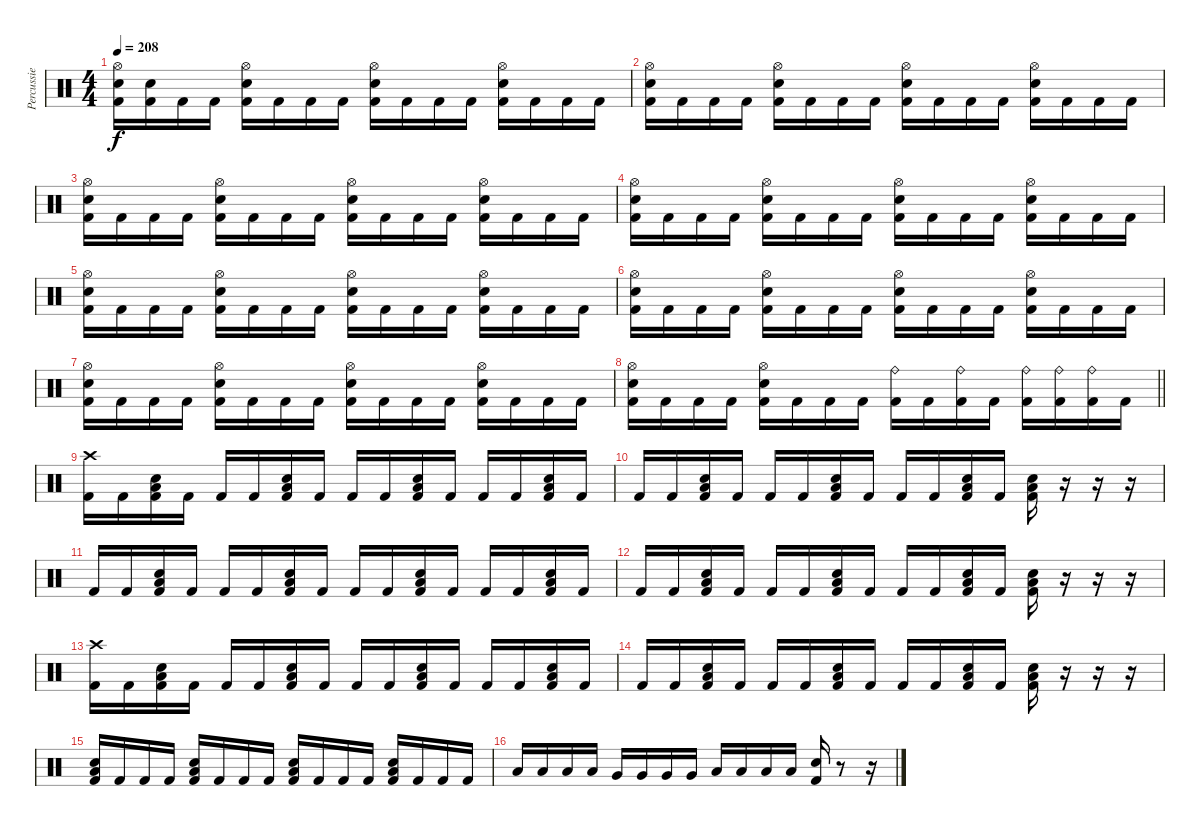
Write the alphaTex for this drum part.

\track ("Percussie" "Percussie") {instrument percussion}
\staff {score}
\articulation defaults
\ts (4 4)
\tempo 208
\clef neutral
\ks c
("Hi-Hat (open)" "Electric Snare (hit)" "Kick (hit) 2").16{dy f} ("Electric Snare (hit)" "Kick (hit) 2").16 "Kick (hit) 2".16 "Kick (hit) 2".16 ("Hi-Hat (open)" "Electric Snare (hit)" "Kick (hit) 2").16 "Kick (hit) 2".16 "Kick (hit) 2".16 "Kick (hit) 2".16 ("Hi-Hat (open)" "Electric Snare (hit)" "Kick (hit) 2").16 "Kick (hit) 2".16 "Kick (hit) 2".16 "Kick (hit) 2".16 ("Hi-Hat (open)" "Electric Snare (hit)" "Kick (hit) 2").16 "Kick (hit) 2".16 "Kick (hit) 2".16 "Kick (hit) 2".16 |
("Hi-Hat (open)" "Electric Snare (hit)" "Kick (hit) 2").16 "Kick (hit) 2".16 "Kick (hit) 2".16 "Kick (hit) 2".16 ("Hi-Hat (open)" "Electric Snare (hit)" "Kick (hit) 2").16 "Kick (hit) 2".16 "Kick (hit) 2".16 "Kick (hit) 2".16 ("Hi-Hat (open)" "Electric Snare (hit)" "Kick (hit) 2").16 "Kick (hit) 2".16 "Kick (hit) 2".16 "Kick (hit) 2".16 ("Hi-Hat (open)" "Electric Snare (hit)" "Kick (hit) 2").16 "Kick (hit) 2".16 "Kick (hit) 2".16 "Kick (hit) 2".16 |
("Hi-Hat (open)" "Electric Snare (hit)" "Kick (hit) 2").16 "Kick (hit) 2".16 "Kick (hit) 2".16 "Kick (hit) 2".16 ("Hi-Hat (open)" "Electric Snare (hit)" "Kick (hit) 2").16 "Kick (hit) 2".16 "Kick (hit) 2".16 "Kick (hit) 2".16 ("Hi-Hat (open)" "Electric Snare (hit)" "Kick (hit) 2").16 "Kick (hit) 2".16 "Kick (hit) 2".16 "Kick (hit) 2".16 ("Hi-Hat (open)" "Electric Snare (hit)" "Kick (hit) 2").16 "Kick (hit) 2".16 "Kick (hit) 2".16 "Kick (hit) 2".16 |
("Hi-Hat (open)" "Electric Snare (hit)" "Kick (hit) 2").16 "Kick (hit) 2".16 "Kick (hit) 2".16 "Kick (hit) 2".16 ("Hi-Hat (open)" "Electric Snare (hit)" "Kick (hit) 2").16 "Kick (hit) 2".16 "Kick (hit) 2".16 "Kick (hit) 2".16 ("Hi-Hat (open)" "Electric Snare (hit)" "Kick (hit) 2").16 "Kick (hit) 2".16 "Kick (hit) 2".16 "Kick (hit) 2".16 ("Hi-Hat (open)" "Electric Snare (hit)" "Kick (hit) 2").16 "Kick (hit) 2".16 "Kick (hit) 2".16 "Kick (hit) 2".16 |
("Hi-Hat (open)" "Electric Snare (hit)" "Kick (hit) 2").16 "Kick (hit) 2".16 "Kick (hit) 2".16 "Kick (hit) 2".16 ("Hi-Hat (open)" "Electric Snare (hit)" "Kick (hit) 2").16 "Kick (hit) 2".16 "Kick (hit) 2".16 "Kick (hit) 2".16 ("Hi-Hat (open)" "Electric Snare (hit)" "Kick (hit) 2").16 "Kick (hit) 2".16 "Kick (hit) 2".16 "Kick (hit) 2".16 ("Hi-Hat (open)" "Electric Snare (hit)" "Kick (hit) 2").16 "Kick (hit) 2".16 "Kick (hit) 2".16 "Kick (hit) 2".16 |
("Hi-Hat (open)" "Electric Snare (hit)" "Kick (hit) 2").16 "Kick (hit) 2".16 "Kick (hit) 2".16 "Kick (hit) 2".16 ("Hi-Hat (open)" "Electric Snare (hit)" "Kick (hit) 2").16 "Kick (hit) 2".16 "Kick (hit) 2".16 "Kick (hit) 2".16 ("Hi-Hat (open)" "Electric Snare (hit)" "Kick (hit) 2").16 "Kick (hit) 2".16 "Kick (hit) 2".16 "Kick (hit) 2".16 ("Hi-Hat (open)" "Electric Snare (hit)" "Kick (hit) 2").16 "Kick (hit) 2".16 "Kick (hit) 2".16 "Kick (hit) 2".16 |
("Hi-Hat (open)" "Electric Snare (hit)" "Kick (hit) 2").16 "Kick (hit) 2".16 "Kick (hit) 2".16 "Kick (hit) 2".16 ("Hi-Hat (open)" "Electric Snare (hit)" "Kick (hit) 2").16 "Kick (hit) 2".16 "Kick (hit) 2".16 "Kick (hit) 2".16 ("Hi-Hat (open)" "Electric Snare (hit)" "Kick (hit) 2").16 "Kick (hit) 2".16 "Kick (hit) 2".16 "Kick (hit) 2".16 ("Hi-Hat (open)" "Electric Snare (hit)" "Kick (hit) 2").16 "Kick (hit) 2".16 "Kick (hit) 2".16 "Kick (hit) 2".16 |
\barLineRight lightlight
("Hi-Hat (open)" "Electric Snare (hit)" "Kick (hit) 2").16 "Kick (hit) 2".16 "Kick (hit) 2".16 "Kick (hit) 2".16 ("Hi-Hat (open)" "Electric Snare (hit)" "Kick (hit) 2").16 "Kick (hit) 2".16 "Kick (hit) 2".16 "Kick (hit) 2".16 ("Ride (bell)" "Kick (hit) 2").16 "Kick (hit) 2".16 ("Ride (bell)" "Kick (hit) 2").16 "Kick (hit) 2".16 ("Ride (bell)" "Kick (hit) 2").16 ("Ride (bell)" "Kick (hit) 2").16 ("Ride (bell)" "Kick (hit) 2").16 "Kick (hit) 2".16 |
("Crash high (hit)" "Kick (hit) 2").16 "Kick (hit) 2".16 ("Low Tom (hit)" "Electric Snare (hit)" "Kick (hit) 2").16 "Kick (hit) 2".16 "Kick (hit) 2".16 "Kick (hit) 2".16 ("Low Tom (hit)" "Electric Snare (hit)" "Kick (hit) 2").16 "Kick (hit) 2".16 "Kick (hit) 2".16 "Kick (hit) 2".16 ("Low Tom (hit)" "Electric Snare (hit)" "Kick (hit) 2").16 "Kick (hit) 2".16 "Kick (hit) 2".16 "Kick (hit) 2".16 ("Low Tom (hit)" "Electric Snare (hit)" "Kick (hit) 2").16 "Kick (hit) 2".16 |
"Kick (hit) 2".16 "Kick (hit) 2".16 ("Low Tom (hit)" "Electric Snare (hit)" "Kick (hit) 2").16 "Kick (hit) 2".16 "Kick (hit) 2".16 "Kick (hit) 2".16 ("Low Tom (hit)" "Electric Snare (hit)" "Kick (hit) 2").16 "Kick (hit) 2".16 "Kick (hit) 2".16 "Kick (hit) 2".16 ("Low Tom (hit)" "Electric Snare (hit)" "Kick (hit) 2").16 "Kick (hit) 2".16 ("Low Tom (hit)" "Electric Snare (hit)" "Kick (hit) 2").16 r.16 r.16 r.16 |
"Kick (hit) 2".16 "Kick (hit) 2".16 ("Low Tom (hit)" "Electric Snare (hit)" "Kick (hit) 2").16 "Kick (hit) 2".16 "Kick (hit) 2".16 "Kick (hit) 2".16 ("Low Tom (hit)" "Electric Snare (hit)" "Kick (hit) 2").16 "Kick (hit) 2".16 "Kick (hit) 2".16 "Kick (hit) 2".16 ("Low Tom (hit)" "Electric Snare (hit)" "Kick (hit) 2").16 "Kick (hit) 2".16 "Kick (hit) 2".16 "Kick (hit) 2".16 ("Low Tom (hit)" "Electric Snare (hit)" "Kick (hit) 2").16 "Kick (hit) 2".16 |
"Kick (hit) 2".16 "Kick (hit) 2".16 ("Low Tom (hit)" "Electric Snare (hit)" "Kick (hit) 2").16 "Kick (hit) 2".16 "Kick (hit) 2".16 "Kick (hit) 2".16 ("Low Tom (hit)" "Electric Snare (hit)" "Kick (hit) 2").16 "Kick (hit) 2".16 "Kick (hit) 2".16 "Kick (hit) 2".16 ("Low Tom (hit)" "Electric Snare (hit)" "Kick (hit) 2").16 "Kick (hit) 2".16 ("Low Tom (hit)" "Electric Snare (hit)" "Kick (hit) 2").16 r.16 r.16 r.16 |
("Crash high (hit)" "Kick (hit) 2").16 "Kick (hit) 2".16 ("Low Tom (hit)" "Electric Snare (hit)" "Kick (hit) 2").16 "Kick (hit) 2".16 "Kick (hit) 2".16 "Kick (hit) 2".16 ("Low Tom (hit)" "Electric Snare (hit)" "Kick (hit) 2").16 "Kick (hit) 2".16 "Kick (hit) 2".16 "Kick (hit) 2".16 ("Low Tom (hit)" "Electric Snare (hit)" "Kick (hit) 2").16 "Kick (hit) 2".16 "Kick (hit) 2".16 "Kick (hit) 2".16 ("Low Tom (hit)" "Electric Snare (hit)" "Kick (hit) 2").16 "Kick (hit) 2".16 |
"Kick (hit) 2".16 "Kick (hit) 2".16 ("Low Tom (hit)" "Electric Snare (hit)" "Kick (hit) 2").16 "Kick (hit) 2".16 "Kick (hit) 2".16 "Kick (hit) 2".16 ("Low Tom (hit)" "Electric Snare (hit)" "Kick (hit) 2").16 "Kick (hit) 2".16 "Kick (hit) 2".16 "Kick (hit) 2".16 ("Low Tom (hit)" "Electric Snare (hit)" "Kick (hit) 2").16 "Kick (hit) 2".16 ("Low Tom (hit)" "Electric Snare (hit)" "Kick (hit) 2").16 r.16 r.16 r.16 |
("Low Tom (hit)" "Electric Snare (hit)" "Kick (hit) 2").16 "Kick (hit) 2".16 "Kick (hit) 2".16 "Kick (hit) 2".16 ("Low Tom (hit)" "Electric Snare (hit)" "Kick (hit) 2").16 "Kick (hit) 2".16 "Kick (hit) 2".16 "Kick (hit) 2".16 ("Low Tom (hit)" "Electric Snare (hit)" "Kick (hit) 2").16 "Kick (hit) 2".16 "Kick (hit) 2".16 "Kick (hit) 2".16 ("Low Tom (hit)" "Electric Snare (hit)" "Kick (hit) 2").16 "Kick (hit) 2".16 "Kick (hit) 2".16 "Kick (hit) 2".16 |
"Low Tom (hit)".16 "Low Tom (hit)".16 "Low Tom (hit)".16 "Low Tom (hit)".16 "Very Low Tom (hit)".16 "Very Low Tom (hit)".16 "Very Low Tom (hit)".16 "Very Low Tom (hit)".16 "Low Floor Tom (hit)".16 "Low Floor Tom (hit)".16 "Low Floor Tom (hit)".16 "Low Floor Tom (hit)".16 ("Electric Snare (hit)" "Kick (hit) 2").16 r.8 r.16
